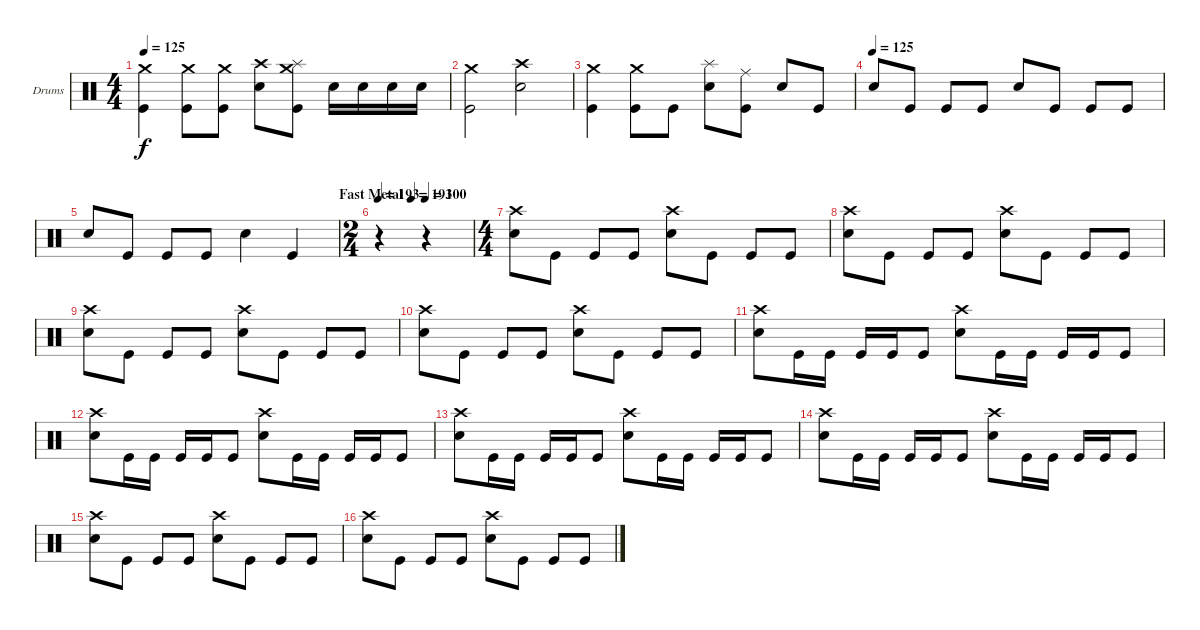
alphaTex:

\bracketExtendMode groupsimilarinstruments
\firstSystemTrackNameOrientation horizontal
\otherSystemsTrackNameOrientation horizontal
\track ("Drumkit" "Drums") {instrument percussion}
\staff {score}
\articulation defaults
\ts (4 4)
\tempo 125
\clef neutral
\ks c
("Crash medium (hit)" "Kick (hit)").4{dy f} ("Crash medium (hit)" "Kick (hit)").8 ("Crash medium (hit)" "Kick (hit)").8 ("Crash high (hit)" "Snare (hit) 2").8 ("Splash (hit)" "Crash medium (hit)" "Kick (hit)").8 "Snare (hit) 2".16 "Snare (hit) 2".16 "Snare (hit) 2".16 "Snare (hit) 2".16 |
("Crash medium (hit)" "Kick (hit)").2 ("Crash high (hit)" "Snare (hit) 2").2 |
("Crash medium (hit)" "Kick (hit)").4 ("Crash medium (hit)" "Kick (hit)").8 "Kick (hit)".8 ("Splash (hit)" "Snare (hit) 2").8 ("Ride (middle)" "Kick (hit)").8 "Snare (hit) 2".8 "Kick (hit)".8 |
\tempo (125)
"Snare (hit) 2".8 "Kick (hit)".8 "Kick (hit)".8 "Kick (hit)".8 "Snare (hit) 2".8 "Kick (hit)".8 "Kick (hit)".8 "Kick (hit)".8 |
\tempo (193 "Fast Metal" 1)
"Snare (hit) 2".8 "Kick (hit)".8 "Kick (hit)".8 "Kick (hit)".8 "Snare (hit) 2".4 "Kick (hit)".4 |
\ts (2 4)
\beaming (8 2 2)
\tempo 193
\tempo (100 0.5)
r.4 r.4 |
\ts (4 4)
\beaming (8 2 2 2 2)
("Crash high (hit)" "Snare (hit) 2").8 "Kick (hit)".8 "Kick (hit)".8 "Kick (hit)".8 ("Crash high (hit)" "Snare (hit) 2").8 "Kick (hit)".8 "Kick (hit)".8 "Kick (hit)".8 |
("Crash high (hit)" "Snare (hit) 2").8 "Kick (hit)".8 "Kick (hit)".8 "Kick (hit)".8 ("Crash high (hit)" "Snare (hit) 2").8 "Kick (hit)".8 "Kick (hit)".8 "Kick (hit)".8 |
("Crash high (hit)" "Snare (hit) 2").8 "Kick (hit)".8 "Kick (hit)".8 "Kick (hit)".8 ("Crash high (hit)" "Snare (hit) 2").8 "Kick (hit)".8 "Kick (hit)".8 "Kick (hit)".8 |
("Crash high (hit)" "Snare (hit) 2").8 "Kick (hit)".8 "Kick (hit)".8 "Kick (hit)".8 ("Crash high (hit)" "Snare (hit) 2").8 "Kick (hit)".8 "Kick (hit)".8 "Kick (hit)".8 |
("Crash high (hit)" "Snare (hit) 2").8 "Kick (hit)".16 "Kick (hit)".16 "Kick (hit)".16 "Kick (hit)".16 "Kick (hit)".8 ("Crash high (hit)" "Snare (hit) 2").8 "Kick (hit)".16 "Kick (hit)".16 "Kick (hit)".16 "Kick (hit)".16 "Kick (hit)".8 |
("Crash high (hit)" "Snare (hit) 2").8 "Kick (hit)".16 "Kick (hit)".16 "Kick (hit)".16 "Kick (hit)".16 "Kick (hit)".8 ("Crash high (hit)" "Snare (hit) 2").8 "Kick (hit)".16 "Kick (hit)".16 "Kick (hit)".16 "Kick (hit)".16 "Kick (hit)".8 |
("Crash high (hit)" "Snare (hit) 2").8 "Kick (hit)".16 "Kick (hit)".16 "Kick (hit)".16 "Kick (hit)".16 "Kick (hit)".8 ("Crash high (hit)" "Snare (hit) 2").8 "Kick (hit)".16 "Kick (hit)".16 "Kick (hit)".16 "Kick (hit)".16 "Kick (hit)".8 |
("Crash high (hit)" "Snare (hit) 2").8 "Kick (hit)".16 "Kick (hit)".16 "Kick (hit)".16 "Kick (hit)".16 "Kick (hit)".8 ("Crash high (hit)" "Snare (hit) 2").8 "Kick (hit)".16 "Kick (hit)".16 "Kick (hit)".16 "Kick (hit)".16 "Kick (hit)".8 |
("Crash high (hit)" "Snare (hit) 2").8 "Kick (hit)".8 "Kick (hit)".8 "Kick (hit)".8 ("Crash high (hit)" "Snare (hit) 2").8 "Kick (hit)".8 "Kick (hit)".8 "Kick (hit)".8 |
("Crash high (hit)" "Snare (hit) 2").8 "Kick (hit)".8 "Kick (hit)".8 "Kick (hit)".8 ("Crash high (hit)" "Snare (hit) 2").8 "Kick (hit)".8 "Kick (hit)".8 "Kick (hit)".8
